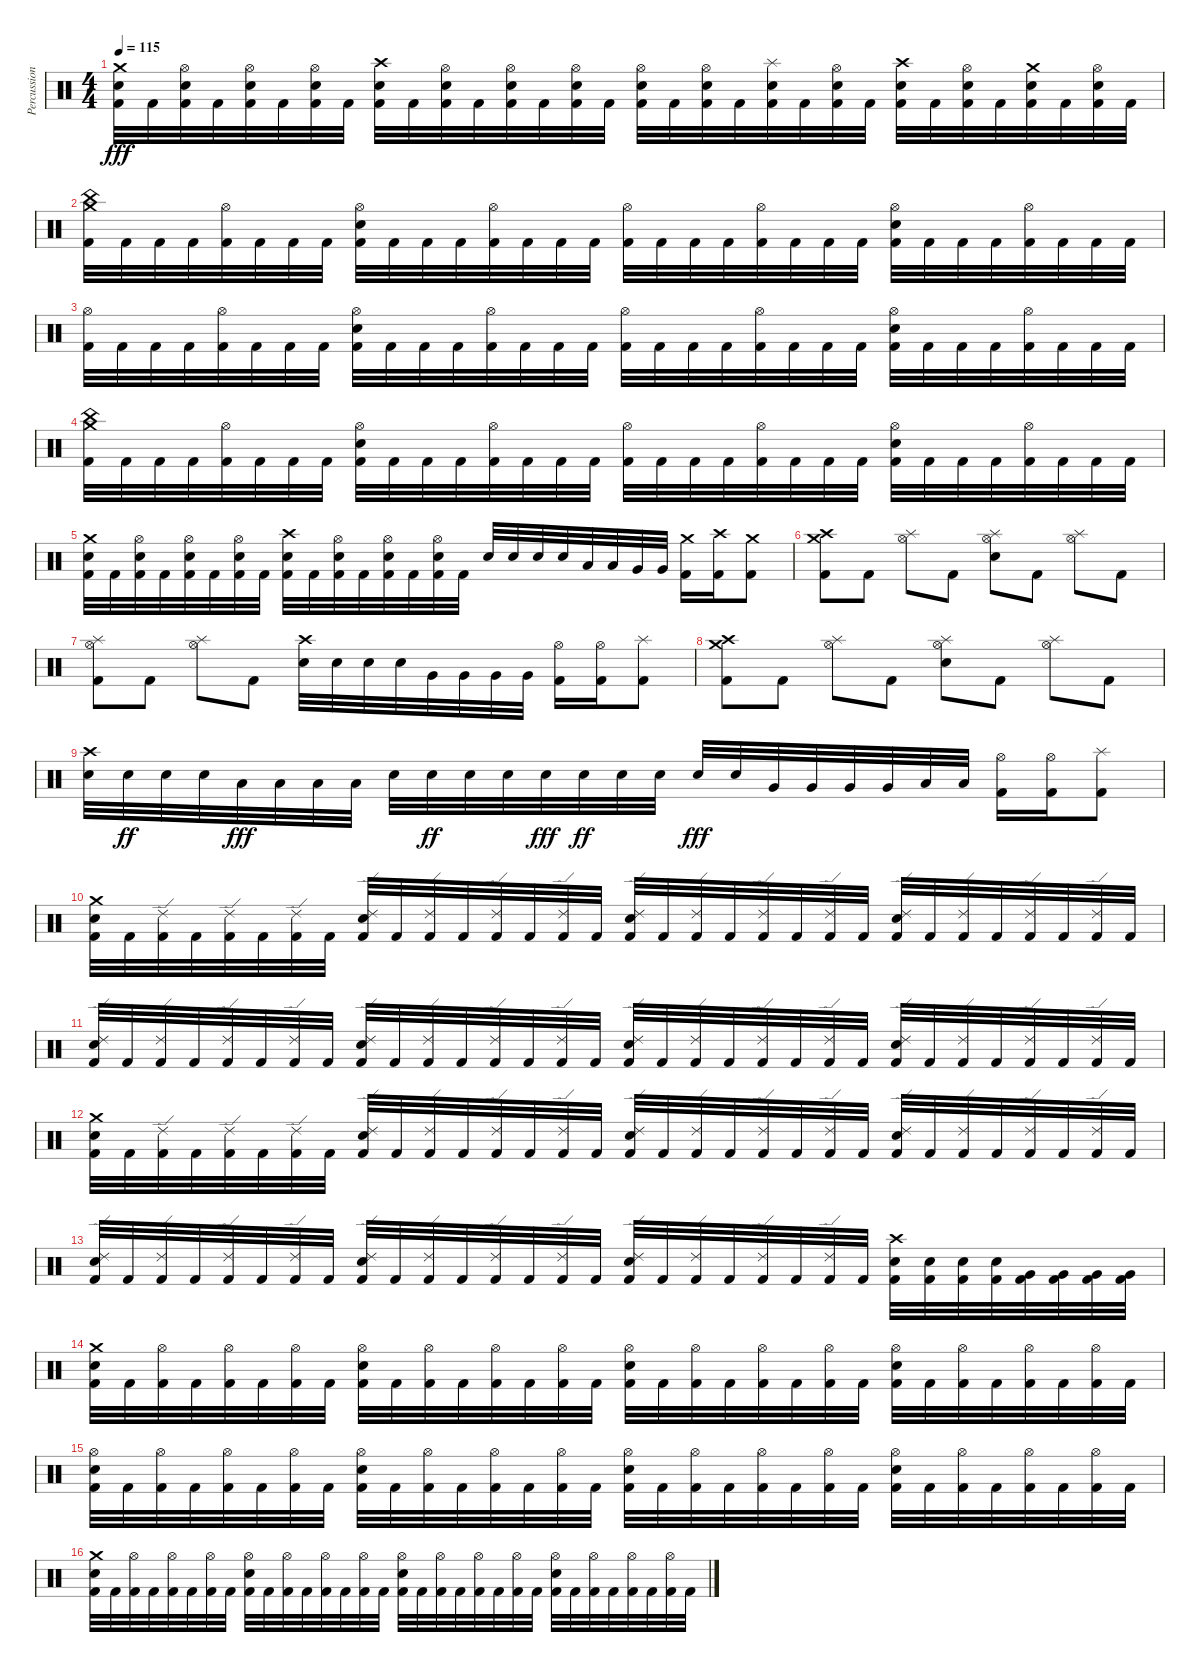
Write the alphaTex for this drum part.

\track ("Percussion" "Percussion") {instrument percussion}
\staff
\articulation defaults
\ts (4 4)
\tempo 115
\clef neutral
\ks c
("Crash medium (hit)" "Snare (hit) 2" "Kick (hit) 2").32{dy fff} "Kick (hit) 2".32 ("Hi-Hat (open)" "Snare (hit) 2" "Kick (hit) 2").32 "Kick (hit) 2".32 ("Hi-Hat (open)" "Snare (hit) 2" "Kick (hit) 2").32 "Kick (hit) 2".32 ("Hi-Hat (open)" "Snare (hit) 2" "Kick (hit) 2").32 "Kick (hit) 2".32 ("Crash high (hit)" "Snare (hit) 2" "Kick (hit) 2").32 "Kick (hit) 2".32 ("Hi-Hat (open)" "Snare (hit) 2" "Kick (hit) 2").32 "Kick (hit) 2".32 ("Hi-Hat (open)" "Snare (hit) 2" "Kick (hit) 2").32 "Kick (hit) 2".32 ("Hi-Hat (open)" "Snare (hit) 2" "Kick (hit) 2").32 "Kick (hit) 2".32 ("Hi-Hat (open)" "Snare (hit) 2" "Kick (hit) 2").32 "Kick (hit) 2".32 ("Hi-Hat (open)" "Snare (hit) 2" "Kick (hit) 2").32 "Kick (hit) 2".32 ("Splash (hit)" "Snare (hit) 2" "Kick (hit) 2").32 "Kick (hit) 2".32 ("Hi-Hat (open)" "Snare (hit) 2" "Kick (hit) 2").32 "Kick (hit) 2".32 ("Crash high (hit)" "Snare (hit) 2" "Kick (hit) 2").32 "Kick (hit) 2".32 ("Hi-Hat (open)" "Snare (hit) 2" "Kick (hit) 2").32 "Kick (hit) 2".32 ("Crash medium (hit)" "Snare (hit) 2" "Kick (hit) 2").32 "Kick (hit) 2".32 ("Hi-Hat (open)" "Snare (hit) 2" "Kick (hit) 2").32 "Kick (hit) 2".32 |
("China (hit)" "Crash medium (hit)" "Kick (hit) 2").32 "Kick (hit) 2".32 "Kick (hit) 2".32 "Kick (hit) 2".32 ("Hi-Hat (open)" "Kick (hit) 2").32 "Kick (hit) 2".32 "Kick (hit) 2".32 "Kick (hit) 2".32 ("Hi-Hat (open)" "Snare (hit) 2" "Kick (hit) 2").32 "Kick (hit) 2".32 "Kick (hit) 2".32 "Kick (hit) 2".32 ("Hi-Hat (open)" "Kick (hit) 2").32 "Kick (hit) 2".32 "Kick (hit) 2".32 "Kick (hit) 2".32 ("Hi-Hat (open)" "Kick (hit) 2").32 "Kick (hit) 2".32 "Kick (hit) 2".32 "Kick (hit) 2".32 ("Hi-Hat (open)" "Kick (hit) 2").32 "Kick (hit) 2".32 "Kick (hit) 2".32 "Kick (hit) 2".32 ("Hi-Hat (open)" "Snare (hit) 2" "Kick (hit) 2").32 "Kick (hit) 2".32 "Kick (hit) 2".32 "Kick (hit) 2".32 ("Hi-Hat (open)" "Kick (hit) 2").32 "Kick (hit) 2".32 "Kick (hit) 2".32 "Kick (hit) 2".32 |
("Hi-Hat (open)" "Kick (hit) 2").32 "Kick (hit) 2".32 "Kick (hit) 2".32 "Kick (hit) 2".32 ("Hi-Hat (open)" "Kick (hit) 2").32 "Kick (hit) 2".32 "Kick (hit) 2".32 "Kick (hit) 2".32 ("Hi-Hat (open)" "Snare (hit) 2" "Kick (hit) 2").32 "Kick (hit) 2".32 "Kick (hit) 2".32 "Kick (hit) 2".32 ("Hi-Hat (open)" "Kick (hit) 2").32 "Kick (hit) 2".32 "Kick (hit) 2".32 "Kick (hit) 2".32 ("Hi-Hat (open)" "Kick (hit) 2").32 "Kick (hit) 2".32 "Kick (hit) 2".32 "Kick (hit) 2".32 ("Hi-Hat (open)" "Kick (hit) 2").32 "Kick (hit) 2".32 "Kick (hit) 2".32 "Kick (hit) 2".32 ("Hi-Hat (open)" "Snare (hit) 2" "Kick (hit) 2").32 "Kick (hit) 2".32 "Kick (hit) 2".32 "Kick (hit) 2".32 ("Hi-Hat (open)" "Kick (hit) 2").32 "Kick (hit) 2".32 "Kick (hit) 2".32 "Kick (hit) 2".32 |
("China (hit)" "Crash medium (hit)" "Kick (hit) 2").32 "Kick (hit) 2".32 "Kick (hit) 2".32 "Kick (hit) 2".32 ("Hi-Hat (open)" "Kick (hit) 2").32 "Kick (hit) 2".32 "Kick (hit) 2".32 "Kick (hit) 2".32 ("Hi-Hat (open)" "Snare (hit) 2" "Kick (hit) 2").32 "Kick (hit) 2".32 "Kick (hit) 2".32 "Kick (hit) 2".32 ("Hi-Hat (open)" "Kick (hit) 2").32 "Kick (hit) 2".32 "Kick (hit) 2".32 "Kick (hit) 2".32 ("Hi-Hat (open)" "Kick (hit) 2").32 "Kick (hit) 2".32 "Kick (hit) 2".32 "Kick (hit) 2".32 ("Hi-Hat (open)" "Kick (hit) 2").32 "Kick (hit) 2".32 "Kick (hit) 2".32 "Kick (hit) 2".32 ("Hi-Hat (open)" "Snare (hit) 2" "Kick (hit) 2").32 "Kick (hit) 2".32 "Kick (hit) 2".32 "Kick (hit) 2".32 ("Hi-Hat (open)" "Kick (hit) 2").32 "Kick (hit) 2".32 "Kick (hit) 2".32 "Kick (hit) 2".32 |
("Crash medium (hit)" "Snare (hit) 2" "Kick (hit) 2").32 "Kick (hit) 2".32 ("Hi-Hat (open)" "Snare (hit) 2" "Kick (hit) 2").32 "Kick (hit) 2".32 ("Hi-Hat (open)" "Snare (hit) 2" "Kick (hit) 2").32 "Kick (hit) 2".32 ("Hi-Hat (open)" "Snare (hit) 2" "Kick (hit) 2").32 "Kick (hit) 2".32 ("Crash high (hit)" "Snare (hit) 2" "Kick (hit) 2").32 "Kick (hit) 2".32 ("Hi-Hat (open)" "Snare (hit) 2" "Kick (hit) 2").32 "Kick (hit) 2".32 ("Hi-Hat (open)" "Snare (hit) 2" "Kick (hit) 2").32 "Kick (hit) 2".32 ("Hi-Hat (open)" "Snare (hit) 2" "Kick (hit) 2").32 "Kick (hit) 2".32 "Snare (hit) 2".32 "Snare (hit) 2".32 "Snare (hit) 2".32 "Snare (hit) 2".32 "Low Tom (hit)".32 "Low Tom (hit)".32 "Very Low Tom (hit)".32 "Very Low Tom (hit)".32 ("Crash medium (hit)" "Kick (hit) 2").16 ("Crash high (hit)" "Kick (hit) 2").16 ("Crash medium (hit)" "Kick (hit) 2").8 |
("Crash high (hit)" "Crash medium (hit)" "Kick (hit) 2").8 "Kick (hit) 2".8 ("Hi-Hat (open)" "Splash (hit)").8 "Kick (hit) 2".8 ("Hi-Hat (open)" "Splash (hit)" "Snare (hit) 2").8 "Kick (hit) 2".8 ("Hi-Hat (open)" "Splash (hit)").8 "Kick (hit) 2".8 |
("Hi-Hat (open)" "Splash (hit)" "Kick (hit) 2").8 "Kick (hit) 2".8 ("Hi-Hat (open)" "Splash (hit)").8 "Kick (hit) 2".8 ("Crash high (hit)" "Snare (hit) 2").32 "Snare (hit) 2".32 "Snare (hit) 2".32 "Snare (hit) 2".32 "Very Low Tom (hit)".32 "Very Low Tom (hit)".32 "Very Low Tom (hit)".32 "Very Low Tom (hit)".32 ("Hi-Hat (open)" "Kick (hit) 2").16 ("Hi-Hat (open)" "Kick (hit) 2").16 ("Splash (hit)" "Kick (hit) 2").8 |
("Crash high (hit)" "Crash medium (hit)" "Kick (hit) 2").8 "Kick (hit) 2".8 ("Hi-Hat (open)" "Splash (hit)").8 "Kick (hit) 2".8 ("Hi-Hat (open)" "Splash (hit)" "Snare (hit) 2").8 "Kick (hit) 2".8 ("Hi-Hat (open)" "Splash (hit)").8 "Kick (hit) 2".8 |
("Crash high (hit)" "Snare (hit) 2").32 "Snare (hit) 2".32{dy ff} "Snare (hit) 2".32 "Snare (hit) 2".32 "Low Tom (hit)".32{dy fff} "Low Tom (hit)".32 "Low Tom (hit)".32 "Low Tom (hit)".32 "Snare (hit) 2".32 "Snare (hit) 2".32{dy ff} "Snare (hit) 2".32 "Snare (hit) 2".32 "Snare (hit) 2".32{dy fff} "Snare (hit) 2".32{dy ff} "Snare (hit) 2".32 "Snare (hit) 2".32 "Snare (hit) 2".32{dy fff} "Snare (hit) 2".32 "Very Low Tom (hit)".32 "Very Low Tom (hit)".32 "Very Low Tom (hit)".32 "Very Low Tom (hit)".32 "Low Floor Tom (hit)".32 "Low Floor Tom (hit)".32 ("Hi-Hat (open)" "Kick (hit) 2").16 ("Hi-Hat (open)" "Kick (hit) 2").16 ("Splash (hit)" "Kick (hit) 2").8 |
("Crash medium (hit)" "Snare (hit) 2" "Kick (hit) 2").32 "Kick (hit) 2".32 ("Ride (edge) 2" "Kick (hit) 2").32 "Kick (hit) 2".32 ("Ride (edge) 2" "Kick (hit) 2").32 "Kick (hit) 2".32 ("Ride (edge) 2" "Kick (hit) 2").32 "Kick (hit) 2".32 ("Ride (edge) 2" "Snare (hit) 2" "Kick (hit) 2").32 "Kick (hit) 2".32 ("Ride (edge) 2" "Kick (hit) 2").32 "Kick (hit) 2".32 ("Ride (edge) 2" "Kick (hit) 2").32 "Kick (hit) 2".32 ("Ride (edge) 2" "Kick (hit) 2").32 "Kick (hit) 2".32 ("Ride (edge) 2" "Snare (hit) 2" "Kick (hit) 2").32 "Kick (hit) 2".32 ("Ride (edge) 2" "Kick (hit) 2").32 "Kick (hit) 2".32 ("Ride (edge) 2" "Kick (hit) 2").32 "Kick (hit) 2".32 ("Ride (edge) 2" "Kick (hit) 2").32 "Kick (hit) 2".32 ("Ride (edge) 2" "Snare (hit) 2" "Kick (hit) 2").32 "Kick (hit) 2".32 ("Ride (edge) 2" "Kick (hit) 2").32 "Kick (hit) 2".32 ("Ride (edge) 2" "Kick (hit) 2").32 "Kick (hit) 2".32 ("Ride (edge) 2" "Kick (hit) 2").32 "Kick (hit) 2".32 |
("Ride (edge) 2" "Snare (hit) 2" "Kick (hit) 2").32 "Kick (hit) 2".32 ("Ride (edge) 2" "Kick (hit) 2").32 "Kick (hit) 2".32 ("Ride (edge) 2" "Kick (hit) 2").32 "Kick (hit) 2".32 ("Ride (edge) 2" "Kick (hit) 2").32 "Kick (hit) 2".32 ("Ride (edge) 2" "Snare (hit) 2" "Kick (hit) 2").32 "Kick (hit) 2".32 ("Ride (edge) 2" "Kick (hit) 2").32 "Kick (hit) 2".32 ("Ride (edge) 2" "Kick (hit) 2").32 "Kick (hit) 2".32 ("Ride (edge) 2" "Kick (hit) 2").32 "Kick (hit) 2".32 ("Ride (edge) 2" "Snare (hit) 2" "Kick (hit) 2").32 "Kick (hit) 2".32 ("Ride (edge) 2" "Kick (hit) 2").32 "Kick (hit) 2".32 ("Ride (edge) 2" "Kick (hit) 2").32 "Kick (hit) 2".32 ("Ride (edge) 2" "Kick (hit) 2").32 "Kick (hit) 2".32 ("Ride (edge) 2" "Snare (hit) 2" "Kick (hit) 2").32 "Kick (hit) 2".32 ("Ride (edge) 2" "Kick (hit) 2").32 "Kick (hit) 2".32 ("Ride (edge) 2" "Kick (hit) 2").32 "Kick (hit) 2".32 ("Ride (edge) 2" "Kick (hit) 2").32 "Kick (hit) 2".32 |
("Crash medium (hit)" "Snare (hit) 2" "Kick (hit) 2").32 "Kick (hit) 2".32 ("Ride (edge) 2" "Kick (hit) 2").32 "Kick (hit) 2".32 ("Ride (edge) 2" "Kick (hit) 2").32 "Kick (hit) 2".32 ("Ride (edge) 2" "Kick (hit) 2").32 "Kick (hit) 2".32 ("Ride (edge) 2" "Snare (hit) 2" "Kick (hit) 2").32 "Kick (hit) 2".32 ("Ride (edge) 2" "Kick (hit) 2").32 "Kick (hit) 2".32 ("Ride (edge) 2" "Kick (hit) 2").32 "Kick (hit) 2".32 ("Ride (edge) 2" "Kick (hit) 2").32 "Kick (hit) 2".32 ("Ride (edge) 2" "Snare (hit) 2" "Kick (hit) 2").32 "Kick (hit) 2".32 ("Ride (edge) 2" "Kick (hit) 2").32 "Kick (hit) 2".32 ("Ride (edge) 2" "Kick (hit) 2").32 "Kick (hit) 2".32 ("Ride (edge) 2" "Kick (hit) 2").32 "Kick (hit) 2".32 ("Ride (edge) 2" "Snare (hit) 2" "Kick (hit) 2").32 "Kick (hit) 2".32 ("Ride (edge) 2" "Kick (hit) 2").32 "Kick (hit) 2".32 ("Ride (edge) 2" "Kick (hit) 2").32 "Kick (hit) 2".32 ("Ride (edge) 2" "Kick (hit) 2").32 "Kick (hit) 2".32 |
("Ride (edge) 2" "Snare (hit) 2" "Kick (hit) 2").32 "Kick (hit) 2".32 ("Ride (edge) 2" "Kick (hit) 2").32 "Kick (hit) 2".32 ("Ride (edge) 2" "Kick (hit) 2").32 "Kick (hit) 2".32 ("Ride (edge) 2" "Kick (hit) 2").32 "Kick (hit) 2".32 ("Ride (edge) 2" "Snare (hit) 2" "Kick (hit) 2").32 "Kick (hit) 2".32 ("Ride (edge) 2" "Kick (hit) 2").32 "Kick (hit) 2".32 ("Ride (edge) 2" "Kick (hit) 2").32 "Kick (hit) 2".32 ("Ride (edge) 2" "Kick (hit) 2").32 "Kick (hit) 2".32 ("Ride (edge) 2" "Snare (hit) 2" "Kick (hit) 2").32 "Kick (hit) 2".32 ("Ride (edge) 2" "Kick (hit) 2").32 "Kick (hit) 2".32 ("Ride (edge) 2" "Kick (hit) 2").32 "Kick (hit) 2".32 ("Ride (edge) 2" "Kick (hit) 2").32 "Kick (hit) 2".32 ("Crash high (hit)" "Snare (hit) 2" "Kick (hit) 2").32 ("Snare (hit) 2" "Kick (hit) 2").32 ("Snare (hit) 2" "Kick (hit) 2").32 ("Snare (hit) 2" "Kick (hit) 2").32 ("Very Low Tom (hit)" "Kick (hit) 2").32 ("Very Low Tom (hit)" "Kick (hit) 2").32 ("Very Low Tom (hit)" "Kick (hit) 2").32 ("Very Low Tom (hit)" "Kick (hit) 2").32 |
("Crash medium (hit)" "Snare (hit) 2" "Kick (hit) 2").32 "Kick (hit) 2".32 ("Hi-Hat (open)" "Kick (hit) 2").32 "Kick (hit) 2".32 ("Hi-Hat (open)" "Kick (hit) 2").32 "Kick (hit) 2".32 ("Hi-Hat (open)" "Kick (hit) 2").32 "Kick (hit) 2".32 ("Hi-Hat (open)" "Snare (hit) 2" "Kick (hit) 2").32 "Kick (hit) 2".32 ("Hi-Hat (open)" "Kick (hit) 2").32 "Kick (hit) 2".32 ("Hi-Hat (open)" "Kick (hit) 2").32 "Kick (hit) 2".32 ("Hi-Hat (open)" "Kick (hit) 2").32 "Kick (hit) 2".32 ("Hi-Hat (open)" "Snare (hit) 2" "Kick (hit) 2").32 "Kick (hit) 2".32 ("Hi-Hat (open)" "Kick (hit) 2").32 "Kick (hit) 2".32 ("Hi-Hat (open)" "Kick (hit) 2").32 "Kick (hit) 2".32 ("Hi-Hat (open)" "Kick (hit) 2").32 "Kick (hit) 2".32 ("Hi-Hat (open)" "Snare (hit) 2" "Kick (hit) 2").32 "Kick (hit) 2".32 ("Hi-Hat (open)" "Kick (hit) 2").32 "Kick (hit) 2".32 ("Hi-Hat (open)" "Kick (hit) 2").32 "Kick (hit) 2".32 ("Hi-Hat (open)" "Kick (hit) 2").32 "Kick (hit) 2".32 |
("Hi-Hat (open)" "Snare (hit) 2" "Kick (hit) 2").32 "Kick (hit) 2".32 ("Hi-Hat (open)" "Kick (hit) 2").32 "Kick (hit) 2".32 ("Hi-Hat (open)" "Kick (hit) 2").32 "Kick (hit) 2".32 ("Hi-Hat (open)" "Kick (hit) 2").32 "Kick (hit) 2".32 ("Hi-Hat (open)" "Snare (hit) 2" "Kick (hit) 2").32 "Kick (hit) 2".32 ("Hi-Hat (open)" "Kick (hit) 2").32 "Kick (hit) 2".32 ("Hi-Hat (open)" "Kick (hit) 2").32 "Kick (hit) 2".32 ("Hi-Hat (open)" "Kick (hit) 2").32 "Kick (hit) 2".32 ("Hi-Hat (open)" "Snare (hit) 2" "Kick (hit) 2").32 "Kick (hit) 2".32 ("Hi-Hat (open)" "Kick (hit) 2").32 "Kick (hit) 2".32 ("Hi-Hat (open)" "Kick (hit) 2").32 "Kick (hit) 2".32 ("Hi-Hat (open)" "Kick (hit) 2").32 "Kick (hit) 2".32 ("Hi-Hat (open)" "Snare (hit) 2" "Kick (hit) 2").32 "Kick (hit) 2".32 ("Hi-Hat (open)" "Kick (hit) 2").32 "Kick (hit) 2".32 ("Hi-Hat (open)" "Kick (hit) 2").32 "Kick (hit) 2".32 ("Hi-Hat (open)" "Kick (hit) 2").32 "Kick (hit) 2".32 |
("Crash medium (hit)" "Snare (hit) 2" "Kick (hit) 2").32 "Kick (hit) 2".32 ("Hi-Hat (open)" "Kick (hit) 2").32 "Kick (hit) 2".32 ("Hi-Hat (open)" "Kick (hit) 2").32 "Kick (hit) 2".32 ("Hi-Hat (open)" "Kick (hit) 2").32 "Kick (hit) 2".32 ("Hi-Hat (open)" "Snare (hit) 2" "Kick (hit) 2").32 "Kick (hit) 2".32 ("Hi-Hat (open)" "Kick (hit) 2").32 "Kick (hit) 2".32 ("Hi-Hat (open)" "Kick (hit) 2").32 "Kick (hit) 2".32 ("Hi-Hat (open)" "Kick (hit) 2").32 "Kick (hit) 2".32 ("Hi-Hat (open)" "Snare (hit) 2" "Kick (hit) 2").32 "Kick (hit) 2".32 ("Hi-Hat (open)" "Kick (hit) 2").32 "Kick (hit) 2".32 ("Hi-Hat (open)" "Kick (hit) 2").32 "Kick (hit) 2".32 ("Hi-Hat (open)" "Kick (hit) 2").32 "Kick (hit) 2".32 ("Hi-Hat (open)" "Snare (hit) 2" "Kick (hit) 2").32 "Kick (hit) 2".32 ("Hi-Hat (open)" "Kick (hit) 2").32 "Kick (hit) 2".32 ("Hi-Hat (open)" "Kick (hit) 2").32 "Kick (hit) 2".32 ("Hi-Hat (open)" "Kick (hit) 2").32 "Kick (hit) 2".32
